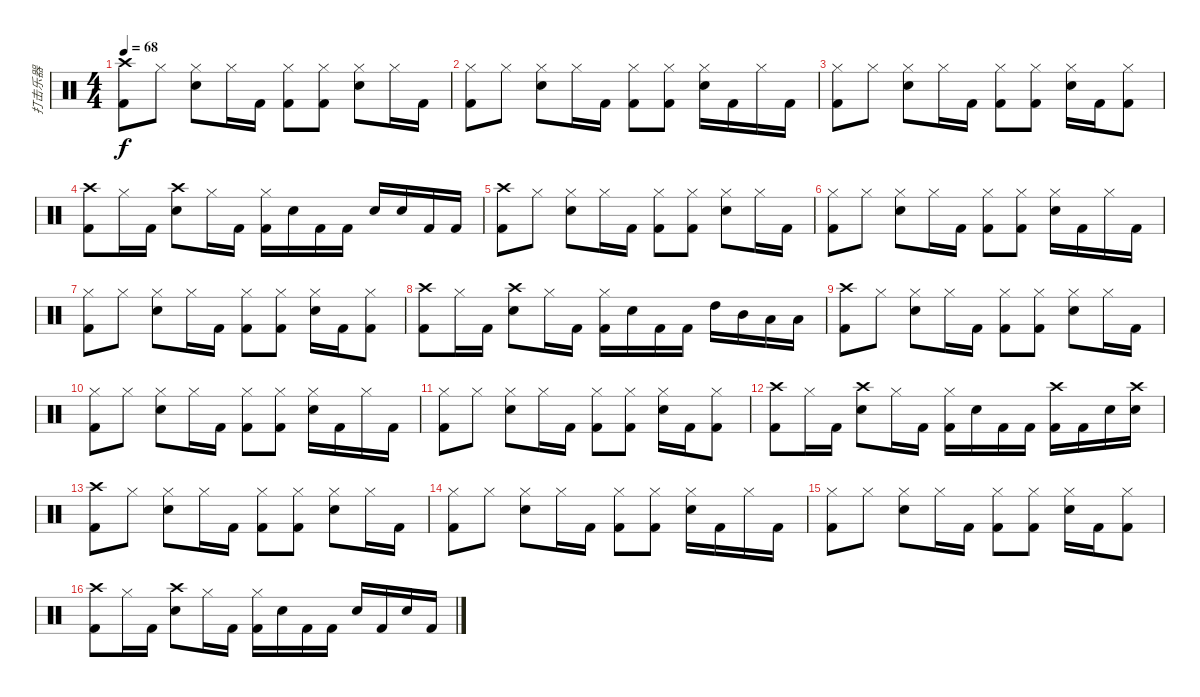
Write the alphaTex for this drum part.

\track ("打击乐器" "打击乐器") {instrument percussion}
\staff {score}
\articulation defaults
\ts (4 4)
\tempo 68
\clef neutral
\ks c
("Crash high (hit)" "Kick (hit) 2").8{dy f} "Hi-Hat (closed)".8 ("Hi-Hat (closed)" "Electric Snare (hit)").8 "Hi-Hat (closed)".16 "Kick (hit) 2".16 ("Hi-Hat (closed)" "Kick (hit) 2").8 ("Hi-Hat (closed)" "Kick (hit) 2").8 ("Hi-Hat (closed)" "Electric Snare (hit)").8 "Hi-Hat (closed)".16 "Kick (hit) 2".16 |
("Hi-Hat (closed)" "Kick (hit) 2").8 "Hi-Hat (closed)".8 ("Hi-Hat (closed)" "Electric Snare (hit)").8 "Hi-Hat (closed)".16 "Kick (hit) 2".16 ("Hi-Hat (closed)" "Kick (hit) 2").8 ("Hi-Hat (closed)" "Kick (hit) 2").8 ("Hi-Hat (closed)" "Electric Snare (hit)").16 "Kick (hit) 2".16 "Hi-Hat (closed)".16 "Kick (hit) 2".16 |
("Hi-Hat (closed)" "Kick (hit) 2").8 "Hi-Hat (closed)".8 ("Hi-Hat (closed)" "Electric Snare (hit)").8 "Hi-Hat (closed)".16 "Kick (hit) 2".16 ("Hi-Hat (closed)" "Kick (hit) 2").8 ("Hi-Hat (closed)" "Kick (hit) 2").8 ("Hi-Hat (closed)" "Electric Snare (hit)").16 "Kick (hit) 2".16 ("Hi-Hat (closed)" "Kick (hit) 2").8 |
("Crash high (hit)" "Kick (hit) 2").8 "Hi-Hat (closed)".16 "Kick (hit) 2".16 ("Crash high (hit)" "Electric Snare (hit)").8 "Hi-Hat (closed)".16 "Kick (hit) 2".16 ("Hi-Hat (closed)" "Kick (hit) 2").16 "Electric Snare (hit)".16 "Kick (hit) 2".16 "Kick (hit) 2".16 "Electric Snare (hit)".16 "Electric Snare (hit)".16 "Kick (hit) 2".16 "Kick (hit) 2".16 |
("Crash high (hit)" "Kick (hit) 2").8 "Hi-Hat (closed)".8 ("Hi-Hat (closed)" "Electric Snare (hit)").8 "Hi-Hat (closed)".16 "Kick (hit) 2".16 ("Hi-Hat (closed)" "Kick (hit) 2").8 ("Hi-Hat (closed)" "Kick (hit) 2").8 ("Hi-Hat (closed)" "Electric Snare (hit)").8 "Hi-Hat (closed)".16 "Kick (hit) 2".16 |
("Hi-Hat (closed)" "Kick (hit) 2").8 "Hi-Hat (closed)".8 ("Hi-Hat (closed)" "Electric Snare (hit)").8 "Hi-Hat (closed)".16 "Kick (hit) 2".16 ("Hi-Hat (closed)" "Kick (hit) 2").8 ("Hi-Hat (closed)" "Kick (hit) 2").8 ("Hi-Hat (closed)" "Electric Snare (hit)").16 "Kick (hit) 2".16 "Hi-Hat (closed)".16 "Kick (hit) 2".16 |
("Hi-Hat (closed)" "Kick (hit) 2").8 "Hi-Hat (closed)".8 ("Hi-Hat (closed)" "Electric Snare (hit)").8 "Hi-Hat (closed)".16 "Kick (hit) 2".16 ("Hi-Hat (closed)" "Kick (hit) 2").8 ("Hi-Hat (closed)" "Kick (hit) 2").8 ("Hi-Hat (closed)" "Electric Snare (hit)").16 "Kick (hit) 2".16 ("Hi-Hat (closed)" "Kick (hit) 2").8 |
("Crash high (hit)" "Kick (hit) 2").8 "Hi-Hat (closed)".16 "Kick (hit) 2".16 ("Crash high (hit)" "Electric Snare (hit)").8 "Hi-Hat (closed)".16 "Kick (hit) 2".16 ("Hi-Hat (closed)" "Kick (hit) 2").16 "Electric Snare (hit)".16 "Kick (hit) 2".16 "Kick (hit) 2".16 "High Tom (hit)".16 "Mid Tom (hit)".16 "Low Tom (hit)".16 "Low Tom (hit)".16 |
("Crash high (hit)" "Kick (hit) 2").8 "Hi-Hat (closed)".8 ("Hi-Hat (closed)" "Electric Snare (hit)").8 "Hi-Hat (closed)".16 "Kick (hit) 2".16 ("Hi-Hat (closed)" "Kick (hit) 2").8 ("Hi-Hat (closed)" "Kick (hit) 2").8 ("Hi-Hat (closed)" "Electric Snare (hit)").8 "Hi-Hat (closed)".16 "Kick (hit) 2".16 |
("Hi-Hat (closed)" "Kick (hit) 2").8 "Hi-Hat (closed)".8 ("Hi-Hat (closed)" "Electric Snare (hit)").8 "Hi-Hat (closed)".16 "Kick (hit) 2".16 ("Hi-Hat (closed)" "Kick (hit) 2").8 ("Hi-Hat (closed)" "Kick (hit) 2").8 ("Hi-Hat (closed)" "Electric Snare (hit)").16 "Kick (hit) 2".16 "Hi-Hat (closed)".16 "Kick (hit) 2".16 |
("Hi-Hat (closed)" "Kick (hit) 2").8 "Hi-Hat (closed)".8 ("Hi-Hat (closed)" "Electric Snare (hit)").8 "Hi-Hat (closed)".16 "Kick (hit) 2".16 ("Hi-Hat (closed)" "Kick (hit) 2").8 ("Hi-Hat (closed)" "Kick (hit) 2").8 ("Hi-Hat (closed)" "Electric Snare (hit)").16 "Kick (hit) 2".16 ("Hi-Hat (closed)" "Kick (hit) 2").8 |
("Crash high (hit)" "Kick (hit) 2").8 "Hi-Hat (closed)".16 "Kick (hit) 2".16 ("Crash high (hit)" "Electric Snare (hit)").8 "Hi-Hat (closed)".16 "Kick (hit) 2".16 ("Hi-Hat (closed)" "Kick (hit) 2").16 "Electric Snare (hit)".16 "Kick (hit) 2".16 "Kick (hit) 2".16 ("Crash high (hit)" "Kick (hit) 2").16 "Kick (hit) 2".16 "Electric Snare (hit)".16 ("Crash high (hit)" "Electric Snare (hit)").16 |
("Crash high (hit)" "Kick (hit) 2").8 "Hi-Hat (closed)".8 ("Hi-Hat (closed)" "Electric Snare (hit)").8 "Hi-Hat (closed)".16 "Kick (hit) 2".16 ("Hi-Hat (closed)" "Kick (hit) 2").8 ("Hi-Hat (closed)" "Kick (hit) 2").8 ("Hi-Hat (closed)" "Electric Snare (hit)").8 "Hi-Hat (closed)".16 "Kick (hit) 2".16 |
("Hi-Hat (closed)" "Kick (hit) 2").8 "Hi-Hat (closed)".8 ("Hi-Hat (closed)" "Electric Snare (hit)").8 "Hi-Hat (closed)".16 "Kick (hit) 2".16 ("Hi-Hat (closed)" "Kick (hit) 2").8 ("Hi-Hat (closed)" "Kick (hit) 2").8 ("Hi-Hat (closed)" "Electric Snare (hit)").16 "Kick (hit) 2".16 "Hi-Hat (closed)".16 "Kick (hit) 2".16 |
("Hi-Hat (closed)" "Kick (hit) 2").8{volume 0} "Hi-Hat (closed)".8 ("Hi-Hat (closed)" "Electric Snare (hit)").8 "Hi-Hat (closed)".16 "Kick (hit) 2".16 ("Hi-Hat (closed)" "Kick (hit) 2").8 ("Hi-Hat (closed)" "Kick (hit) 2").8 ("Hi-Hat (closed)" "Electric Snare (hit)").16 "Kick (hit) 2".16 ("Hi-Hat (closed)" "Kick (hit) 2").8 |
("Crash high (hit)" "Kick (hit) 2").8 "Hi-Hat (closed)".16 "Kick (hit) 2".16 ("Crash high (hit)" "Electric Snare (hit)").8 "Hi-Hat (closed)".16 "Kick (hit) 2".16 ("Hi-Hat (closed)" "Kick (hit) 2").16 "Electric Snare (hit)".16 "Kick (hit) 2".16 "Kick (hit) 2".16 "Electric Snare (hit)".16 "Kick (hit) 2".16 "Electric Snare (hit)".16 "Kick (hit) 2".16
